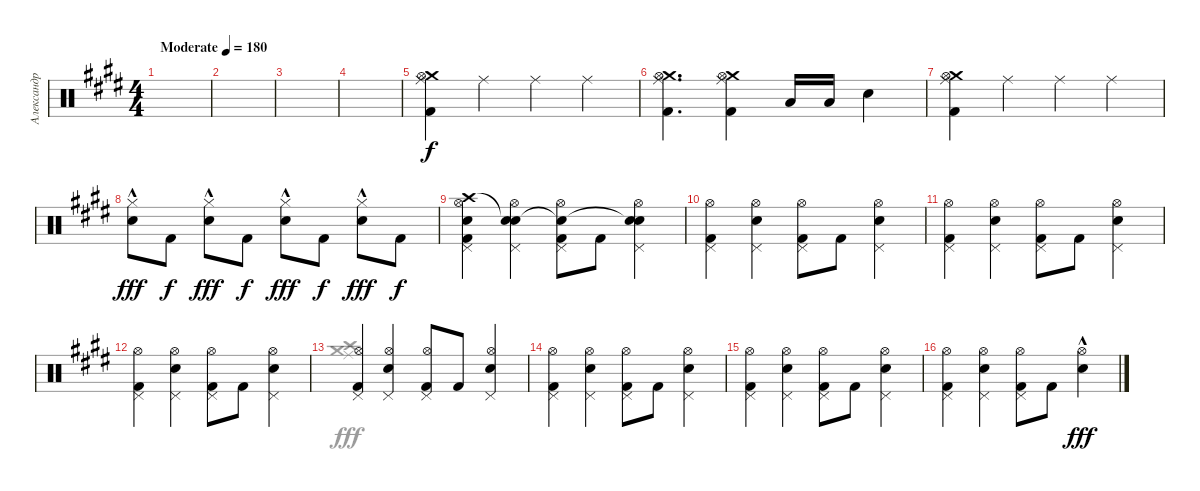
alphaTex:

\track ("Александр Новиков" "Александр ") {instrument percussion}
\staff {score}
\articulation defaults
\voice
\ts (4 4)
\tempo (180 "Moderate")
\clef neutral
\ks c#minor
|
|
|
|
("Crash medium (hit)" "Hi-Hat (open)" "Ride (middle)" "Kick (hit) 2").4 "Ride (middle)".4 "Ride (middle)".4 "Ride (middle)".4 |
("Crash medium (hit)" "Hi-Hat (open)" "Ride (middle)" "Kick (hit) 2").4{d} ("Crash medium (hit)" "Hi-Hat (open)" "Ride (middle)" "Kick (hit) 2").4 "Low Tom (hit)".16 "Low Tom (hit)".16 "Electric Snare (hit)".4 |
("Crash medium (hit)" "Hi-Hat (open)" "Ride (middle)" "Kick (hit) 2").4 "Ride (middle)".4 "Ride (middle)".4 "Ride (middle)".4 |
("Hi-Hat (closed)" "Electric Snare (hit)"{hac}).8{dy fff} "Kick (hit) 2".8{dy f} ("Hi-Hat (closed)" "Electric Snare (hit)"{hac}).8{dy fff} "Kick (hit) 2".8{dy f} ("Hi-Hat (closed)" "Electric Snare (hit)"{hac}).8{dy fff} "Kick (hit) 2".8{dy f} ("Hi-Hat (closed)" "Electric Snare (hit)"{hac}).8{dy fff} "Kick (hit) 2".8{dy f} |
("Hi-Hat (open)" "Kick (hit) 2" "Pedal Hi-Hat (hit)" "Crash high (hit)" "Snare (hit)").4 ("Hi-Hat (open)" "Electric Snare (hit)" "Pedal Hi-Hat (hit)" "Snare (hit)"{t}).4 ("Hi-Hat (open)" "Kick (hit) 2" "Pedal Hi-Hat (hit)" "Snare (hit)"{t}).8 "Kick (hit) 2".8 ("Hi-Hat (open)" "Electric Snare (hit)" "Pedal Hi-Hat (hit)" "Snare (hit)"{t}).4 |
("Hi-Hat (open)" "Kick (hit) 2" "Pedal Hi-Hat (hit)").4 ("Hi-Hat (open)" "Electric Snare (hit)" "Pedal Hi-Hat (hit)").4 ("Hi-Hat (open)" "Kick (hit) 2" "Pedal Hi-Hat (hit)").8 "Kick (hit) 2".8 ("Hi-Hat (open)" "Electric Snare (hit)" "Pedal Hi-Hat (hit)").4 |
("Hi-Hat (open)" "Kick (hit) 2" "Pedal Hi-Hat (hit)").4 ("Hi-Hat (open)" "Electric Snare (hit)" "Pedal Hi-Hat (hit)").4 ("Hi-Hat (open)" "Kick (hit) 2" "Pedal Hi-Hat (hit)").8 "Kick (hit) 2".8 ("Hi-Hat (open)" "Electric Snare (hit)" "Pedal Hi-Hat (hit)").4 |
("Hi-Hat (open)" "Kick (hit) 2" "Pedal Hi-Hat (hit)").4 ("Hi-Hat (open)" "Electric Snare (hit)" "Pedal Hi-Hat (hit)").4 ("Hi-Hat (open)" "Kick (hit) 2" "Pedal Hi-Hat (hit)").8 "Kick (hit) 2".8 ("Hi-Hat (open)" "Electric Snare (hit)" "Pedal Hi-Hat (hit)").4 |
("Hi-Hat (open)" "Kick (hit) 2" "Pedal Hi-Hat (hit)").4 ("Hi-Hat (open)" "Electric Snare (hit)" "Pedal Hi-Hat (hit)").4 ("Hi-Hat (open)" "Kick (hit) 2" "Pedal Hi-Hat (hit)").8 "Kick (hit) 2".8 ("Hi-Hat (open)" "Electric Snare (hit)" "Pedal Hi-Hat (hit)").4 |
("Hi-Hat (open)" "Kick (hit) 2" "Pedal Hi-Hat (hit)").4 ("Hi-Hat (open)" "Electric Snare (hit)" "Pedal Hi-Hat (hit)").4 ("Hi-Hat (open)" "Kick (hit) 2" "Pedal Hi-Hat (hit)").8 "Kick (hit) 2".8 ("Hi-Hat (open)" "Electric Snare (hit)" "Pedal Hi-Hat (hit)").4 |
("Hi-Hat (open)" "Kick (hit) 2" "Pedal Hi-Hat (hit)").4 ("Hi-Hat (open)" "Electric Snare (hit)" "Pedal Hi-Hat (hit)").4 ("Hi-Hat (open)" "Kick (hit) 2" "Pedal Hi-Hat (hit)").8 "Kick (hit) 2".8 ("Hi-Hat (open)" "Electric Snare (hit)" "Pedal Hi-Hat (hit)").4 |
("Hi-Hat (open)" "Kick (hit) 2" "Pedal Hi-Hat (hit)").4 ("Hi-Hat (open)" "Electric Snare (hit)" "Pedal Hi-Hat (hit)").4 ("Hi-Hat (open)" "Kick (hit) 2" "Pedal Hi-Hat (hit)").8 "Kick (hit) 2".8 ("Hi-Hat (open)"{hac} "Electric Snare (hit)").4{dy fff}
\voice
\clef neutral
\ottava regular
\simile none
\ks c#minor
|
|
|
|
|
|
|
|
|
|
|
|
("Crash high (hit)" "Crash medium (hit)" "Ride (middle)").1 |
|
|
